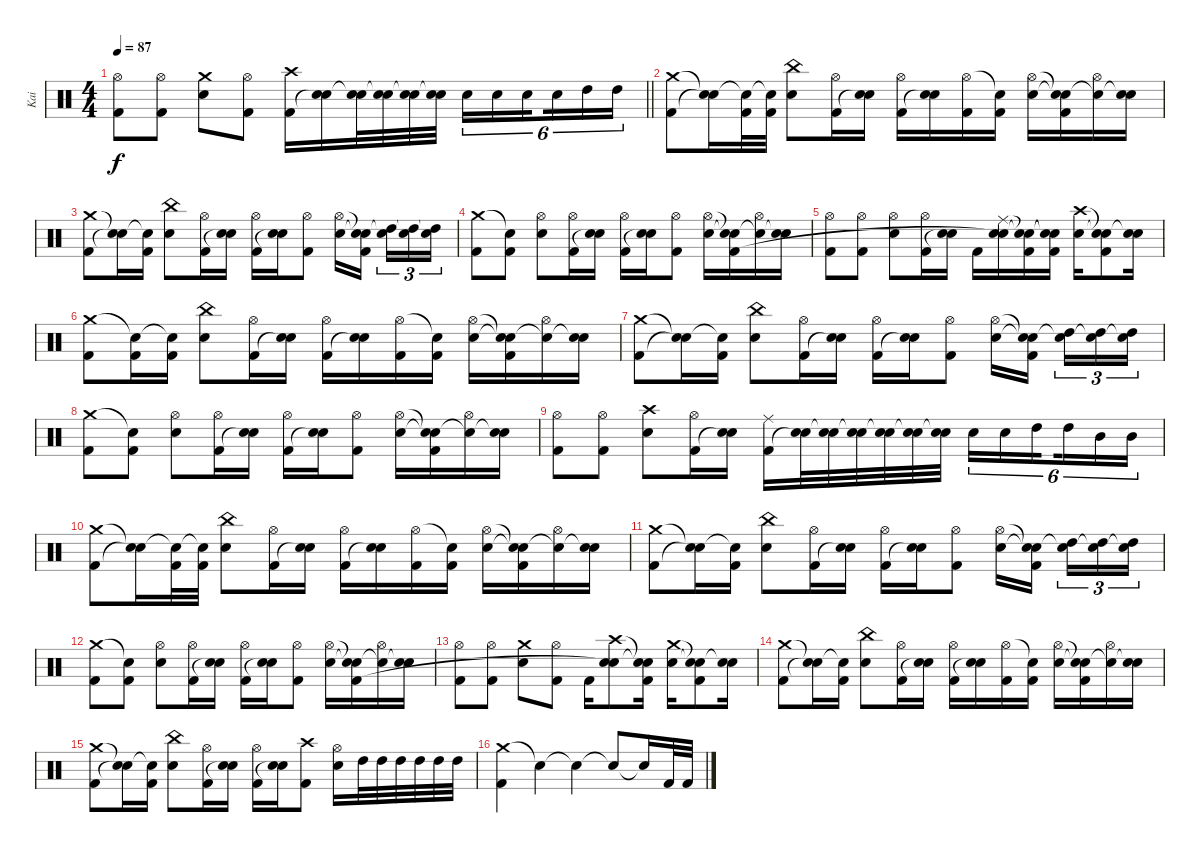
\track ("Kai" "Kai") {instrument percussion}
\staff {score}
\articulation defaults
\ts (4 4)
\tempo 87
\clef neutral
\barLineRight lightlight
\ks c
("Hi-Hat (open)" "Kick (hit) 2").8{dy f} ("Hi-Hat (open)" "Kick (hit) 2").8 ("Crash medium (hit)" "Snare (hit) 2").8 ("Hi-Hat (open)" "Kick (hit) 2").8 ("Crash high (hit)" "Kick (hit) 2").16 ("Snare (hit) 2" "Snare (hit)"{t}).16 ("Snare (hit) 2" "Snare (hit)"{t}).32 ("Snare (hit) 2" "Snare (hit)"{t}).32 ("Snare (hit) 2" "Snare (hit)"{t}).32 ("Snare (hit) 2" "Snare (hit)"{t}).32 "Snare (hit) 2".16{tu (6 4)} "Snare (hit) 2".16{tu (6 4)} "Snare (hit) 2".16{tu (6 4) beam splitsecondary} "Snare (hit) 2".16{tu (6 4)} "High Tom (hit)".16{tu (6 4)} "High Tom (hit)".16{tu (6 4)} |
("Crash medium (hit)" "Kick (hit) 2").8 ("Snare (hit)"{t} "Snare (hit)"{t}).16 ("Snare (hit)"{t} "Kick (hit) 2").32 ("Snare (hit)"{t} "Kick (hit) 2").32 ("China (hit)" "Snare (hit) 2").8 ("Hi-Hat (open)" "Kick (hit) 2").16 ("Snare (hit) 2" "Snare (hit)"{t}).16 ("Hi-Hat (open)" "Kick (hit) 2").16 ("Snare (hit) 2" "Snare (hit)"{t}).16 ("Hi-Hat (open)" "Kick (hit) 2").16 ("Snare (hit)"{t} "Kick (hit) 2").16 ("Hi-Hat (open)" "Snare (hit) 2").16 ("Snare (hit)"{t} "Snare (hit)"{t} "Kick (hit) 2").16 ("Hi-Hat (open)" "Snare (hit)"{t}).16 ("Snare (hit) 2" "Snare (hit)"{t}).16 |
("Crash medium (hit)" "Kick (hit) 2").8 ("Snare (hit)"{t} "Snare (hit)"{t}).16 ("Snare (hit)"{t} "Kick (hit) 2").16 ("China (hit)" "Snare (hit) 2").8 ("Hi-Hat (open)" "Kick (hit) 2").16 ("Snare (hit) 2" "Snare (hit)"{t}).16 ("Hi-Hat (open)" "Kick (hit) 2").16 ("Snare (hit) 2" "Snare (hit)"{t}).16 ("Hi-Hat (open)" "Kick (hit) 2").8 ("Hi-Hat (open)" "Snare (hit) 2").16 ("Snare (hit)"{t} "Snare (hit)"{t} "Kick (hit) 2").16{beam splitsecondary} ("High Tom (hit)" "Snare (hit)"{t}).16{tu (3 2)} ("High Tom (hit)" "Snare (hit)"{t}).16{tu (3 2)} ("High Tom (hit)" "Snare (hit)"{t}).16{tu (3 2)} |
("Crash medium (hit)" "Kick (hit) 2").8 ("Snare (hit)"{t} "Kick (hit) 2").8 ("Hi-Hat (open)" "Snare (hit) 2").8 ("Hi-Hat (open)" "Kick (hit) 2").16 ("Snare (hit) 2" "Snare (hit)"{t}).16 ("Hi-Hat (open)" "Kick (hit) 2").16 ("Snare (hit) 2" "Snare (hit)"{t}).16 ("Hi-Hat (open)" "Kick (hit) 2").8 ("Hi-Hat (open)" "Snare (hit) 2").16 ("Snare (hit)"{t} "Snare (hit)"{t} "Kick (hit) 2").16 ("Hi-Hat (open)" "Snare (hit)"{t}).16 ("Snare (hit) 2" "Snare (hit)"{t}).16 |
("Hi-Hat (open)" "Kick (hit) 2").8 ("Hi-Hat (open)" "Kick (hit) 2").8 ("Hi-Hat (open)" "Snare (hit) 2").8 ("Hi-Hat (open)" "Kick (hit) 2").16 ("Snare (hit) 2" "Snare (hit)"{t}).16 "Kick (hit) 2".16 ("Ride (middle)" "Snare (hit) 2" "Snare (hit)"{t}).16 ("Snare (hit)"{t} "Snare (hit)"{t} "Kick (hit) 2").16 ("Snare (hit)"{t} "Snare (hit)"{t} "Kick (hit) 2").16 ("Crash high (hit)" "Snare (hit) 2").16 ("Snare (hit)"{t} "Snare (hit)"{t} "Kick (hit) 2").8 ("Snare (hit) 2" "Snare (hit)"{t}).16 |
("Crash medium (hit)" "Kick (hit) 2").8 ("Snare (hit)"{t} "Kick (hit) 2").16 ("Snare (hit)"{t} "Kick (hit) 2").16 ("China (hit)" "Snare (hit) 2").8 ("Hi-Hat (open)" "Kick (hit) 2").16 ("Snare (hit) 2" "Snare (hit)"{t}).16 ("Hi-Hat (open)" "Kick (hit) 2").16 ("Snare (hit) 2" "Snare (hit)"{t}).16 ("Hi-Hat (open)" "Kick (hit) 2").16 ("Snare (hit)"{t} "Kick (hit) 2").16 ("Hi-Hat (open)" "Snare (hit) 2").16 ("Snare (hit)"{t} "Snare (hit)"{t} "Kick (hit) 2").16 ("Hi-Hat (open)" "Snare (hit)"{t}).16 ("Snare (hit) 2" "Snare (hit)"{t}).16 |
("Crash medium (hit)" "Kick (hit) 2").8 ("Snare (hit)"{t} "Snare (hit)"{t}).16 ("Snare (hit)"{t} "Kick (hit) 2").16 ("China (hit)" "Snare (hit) 2").8 ("Hi-Hat (open)" "Kick (hit) 2").16 ("Snare (hit) 2" "Snare (hit)"{t}).16 ("Hi-Hat (open)" "Kick (hit) 2").16 ("Snare (hit) 2" "Snare (hit)"{t}).16 ("Hi-Hat (open)" "Kick (hit) 2").8 ("Hi-Hat (open)" "Snare (hit) 2").16 ("Snare (hit)"{t} "Snare (hit)"{t} "Kick (hit) 2").16{beam splitsecondary} ("High Tom (hit)" "Snare (hit)"{t}).16{tu (3 2)} ("High Tom (hit)" "Snare (hit)"{t}).16{tu (3 2)} ("High Tom (hit)" "Snare (hit)"{t}).16{tu (3 2)} |
("Crash medium (hit)" "Kick (hit) 2").8 ("Snare (hit)"{t} "Kick (hit) 2").8 ("Hi-Hat (open)" "Snare (hit) 2").8 ("Hi-Hat (open)" "Kick (hit) 2").16 ("Snare (hit) 2" "Snare (hit)"{t}).16 ("Hi-Hat (open)" "Kick (hit) 2").16 ("Snare (hit) 2" "Snare (hit)"{t}).16 ("Hi-Hat (open)" "Kick (hit) 2").8 ("Hi-Hat (open)" "Snare (hit) 2").16 ("Snare (hit)"{t} "Snare (hit)"{t} "Kick (hit) 2").16 ("Hi-Hat (open)" "Snare (hit)"{t}).16 ("Snare (hit) 2" "Snare (hit)"{t}).16 |
("Hi-Hat (open)" "Kick (hit) 2").8 ("Hi-Hat (open)" "Kick (hit) 2").8 ("Crash high (hit)" "Snare (hit) 2").8 ("Hi-Hat (open)" "Kick (hit) 2").16 ("Snare (hit) 2" "Snare (hit)"{t}).16 ("Ride (middle)" "Kick (hit) 2").16 ("Snare (hit) 2" "Snare (hit)"{t}).32 ("Snare (hit) 2" "Snare (hit)"{t}).32 ("Snare (hit) 2" "Snare (hit)"{t}).32 ("Snare (hit) 2" "Snare (hit)"{t}).32 ("Snare (hit) 2" "Snare (hit)"{t}).32 ("Snare (hit) 2" "Snare (hit)"{t}).32 "Snare (hit) 2".16{tu (6 4)} "Snare (hit) 2".16{tu (6 4)} "High Tom (hit)".16{tu (6 4) beam splitsecondary} "High Tom (hit)".16{tu (6 4)} "Mid Tom (hit)".16{tu (6 4)} "Mid Tom (hit)".16{tu (6 4)} |
("Crash medium (hit)" "Kick (hit) 2").8 ("Snare (hit)"{t} "Snare (hit)"{t}).16 ("Snare (hit)"{t} "Kick (hit) 2").32 ("Snare (hit)"{t} "Kick (hit) 2").32 ("China (hit)" "Snare (hit) 2").8 ("Hi-Hat (open)" "Kick (hit) 2").16 ("Snare (hit) 2" "Snare (hit)"{t}).16 ("Hi-Hat (open)" "Kick (hit) 2").16 ("Snare (hit) 2" "Snare (hit)"{t}).16 ("Hi-Hat (open)" "Kick (hit) 2").16 ("Snare (hit)"{t} "Kick (hit) 2").16 ("Hi-Hat (open)" "Snare (hit) 2").16 ("Snare (hit)"{t} "Snare (hit)"{t} "Kick (hit) 2").16 ("Hi-Hat (open)" "Snare (hit)"{t}).16 ("Snare (hit) 2" "Snare (hit)"{t}).16 |
("Crash medium (hit)" "Kick (hit) 2").8 ("Snare (hit)"{t} "Snare (hit)"{t}).16 ("Snare (hit)"{t} "Kick (hit) 2").16 ("China (hit)" "Snare (hit) 2").8 ("Hi-Hat (open)" "Kick (hit) 2").16 ("Snare (hit) 2" "Snare (hit)"{t}).16 ("Hi-Hat (open)" "Kick (hit) 2").16 ("Snare (hit) 2" "Snare (hit)"{t}).16 ("Hi-Hat (open)" "Kick (hit) 2").8 ("Hi-Hat (open)" "Snare (hit) 2").16 ("Snare (hit)"{t} "Snare (hit)"{t} "Kick (hit) 2").16{beam splitsecondary} ("High Tom (hit)" "Snare (hit)"{t}).16{tu (3 2)} ("High Tom (hit)" "Snare (hit)"{t}).16{tu (3 2)} ("High Tom (hit)" "Snare (hit)"{t}).16{tu (3 2)} |
("Crash medium (hit)" "Kick (hit) 2").8 ("Snare (hit)"{t} "Kick (hit) 2").8 ("Hi-Hat (open)" "Snare (hit) 2").8 ("Hi-Hat (open)" "Kick (hit) 2").16 ("Snare (hit) 2" "Snare (hit)"{t}).16 ("Hi-Hat (open)" "Kick (hit) 2").16 ("Snare (hit) 2" "Snare (hit)"{t}).16 ("Hi-Hat (open)" "Kick (hit) 2").8 ("Hi-Hat (open)" "Snare (hit) 2").16 ("Snare (hit)"{t} "Snare (hit)"{t} "Kick (hit) 2").16 ("Hi-Hat (open)" "Snare (hit)"{t}).16 ("Snare (hit) 2" "Snare (hit)"{t}).16 |
("Hi-Hat (open)" "Kick (hit) 2").8 ("Hi-Hat (open)" "Kick (hit) 2").8 ("Crash medium (hit)" "Snare (hit) 2").8 ("Hi-Hat (open)" "Kick (hit) 2").8 "Kick (hit) 2".16 ("Crash high (hit)" "Snare (hit) 2" "Snare (hit)"{t}).8 ("Snare (hit)"{t} "Snare (hit)"{t} "Kick (hit) 2").16 ("Crash medium (hit)" "Snare (hit) 2").16 ("Snare (hit)"{t} "Snare (hit)"{t} "Kick (hit) 2").8 ("Snare (hit) 2" "Snare (hit)"{t}).16 |
("Crash medium (hit)" "Kick (hit) 2").8 ("Snare (hit)"{t} "Snare (hit)"{t}).16 ("Snare (hit)"{t} "Kick (hit) 2").16 ("China (hit)" "Snare (hit) 2").8 ("Hi-Hat (open)" "Kick (hit) 2").16 ("Snare (hit) 2" "Snare (hit)"{t}).16 ("Hi-Hat (open)" "Kick (hit) 2").16 ("Snare (hit) 2" "Snare (hit)"{t}).16 ("Hi-Hat (open)" "Kick (hit) 2").16 ("Snare (hit)"{t} "Kick (hit) 2").16 ("Hi-Hat (open)" "Snare (hit) 2").16 ("Snare (hit)"{t} "Snare (hit)"{t} "Kick (hit) 2").16 ("Hi-Hat (open)" "Snare (hit)"{t}).16 ("Snare (hit) 2" "Snare (hit)"{t}).16 |
("Crash medium (hit)" "Kick (hit) 2").8 ("Snare (hit)"{t} "Snare (hit)"{t}).16 ("Snare (hit)"{t} "Kick (hit) 2").16 ("China (hit)" "Snare (hit) 2").8 ("Hi-Hat (open)" "Kick (hit) 2").16 ("Snare (hit) 2" "Snare (hit)"{t}).16 ("Hi-Hat (open)" "Kick (hit) 2").16 ("Snare (hit) 2" "Snare (hit)"{t}).16 ("Crash high (hit)" "Kick (hit) 2").8 ("Hi-Hat (open)" "Snare (hit) 2").16 "High Tom (hit)".32 "High Tom (hit)".32 "High Tom (hit)".32 "High Tom (hit)".32 "High Tom (hit)".32 "High Tom (hit)".32 |
("Crash medium (hit)" "Kick (hit) 2").4 "Snare (hit)"{t}.4 "Snare (hit)"{t}.4 "Snare (hit)"{t}.8 "Snare (hit)"{t}.16 "Kick (hit) 2".32 "Kick (hit) 2".32
